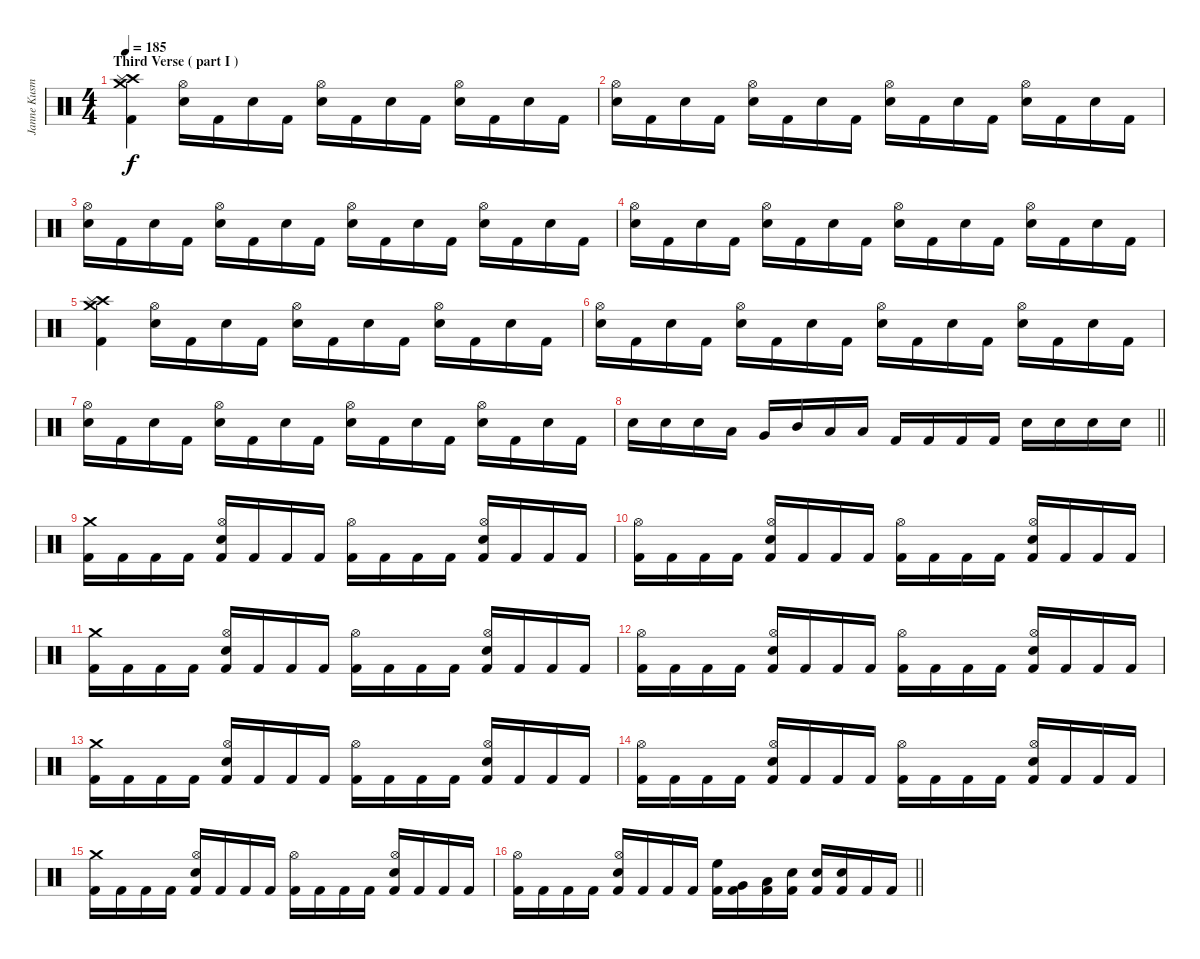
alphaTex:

\track ("Janne Kusmin" "Janne Kusm") {instrument percussion}
\staff {score}
\articulation defaults
\ts (4 4)
\section ("" "Third Verse ( part I )")
\tempo 185
\clef neutral
\ks c
("Crash medium (hit)" "Crash high (hit)" "Splash (hit)" "Kick (hit) 2").4{dy f} ("Hi-Hat (open)" "Electric Snare (hit)").16 "Kick (hit) 2".16 "Electric Snare (hit)".16 "Kick (hit) 2".16 ("Hi-Hat (open)" "Electric Snare (hit)").16 "Kick (hit) 2".16 "Electric Snare (hit)".16 "Kick (hit) 2".16 ("Hi-Hat (open)" "Electric Snare (hit)").16 "Kick (hit) 2".16 "Electric Snare (hit)".16 "Kick (hit) 2".16 |
("Hi-Hat (open)" "Electric Snare (hit)").16 "Kick (hit) 2".16 "Electric Snare (hit)".16 "Kick (hit) 2".16 ("Hi-Hat (open)" "Electric Snare (hit)").16 "Kick (hit) 2".16 "Electric Snare (hit)".16 "Kick (hit) 2".16 ("Hi-Hat (open)" "Electric Snare (hit)").16 "Kick (hit) 2".16 "Electric Snare (hit)".16 "Kick (hit) 2".16 ("Hi-Hat (open)" "Electric Snare (hit)").16 "Kick (hit) 2".16 "Electric Snare (hit)".16 "Kick (hit) 2".16 |
("Hi-Hat (open)" "Electric Snare (hit)").16 "Kick (hit) 2".16 "Electric Snare (hit)".16 "Kick (hit) 2".16 ("Hi-Hat (open)" "Electric Snare (hit)").16 "Kick (hit) 2".16 "Electric Snare (hit)".16 "Kick (hit) 2".16 ("Hi-Hat (open)" "Electric Snare (hit)").16 "Kick (hit) 2".16 "Electric Snare (hit)".16 "Kick (hit) 2".16 ("Hi-Hat (open)" "Electric Snare (hit)").16 "Kick (hit) 2".16 "Electric Snare (hit)".16 "Kick (hit) 2".16 |
("Hi-Hat (open)" "Electric Snare (hit)").16 "Kick (hit) 2".16 "Electric Snare (hit)".16 "Kick (hit) 2".16 ("Hi-Hat (open)" "Electric Snare (hit)").16 "Kick (hit) 2".16 "Electric Snare (hit)".16 "Kick (hit) 2".16 ("Hi-Hat (open)" "Electric Snare (hit)").16 "Kick (hit) 2".16 "Electric Snare (hit)".16 "Kick (hit) 2".16 ("Hi-Hat (open)" "Electric Snare (hit)").16 "Kick (hit) 2".16 "Electric Snare (hit)".16 "Kick (hit) 2".16 |
("Crash medium (hit)" "Crash high (hit)" "Splash (hit)" "Kick (hit) 2").4 ("Hi-Hat (open)" "Electric Snare (hit)").16 "Kick (hit) 2".16 "Electric Snare (hit)".16 "Kick (hit) 2".16 ("Hi-Hat (open)" "Electric Snare (hit)").16 "Kick (hit) 2".16 "Electric Snare (hit)".16 "Kick (hit) 2".16 ("Hi-Hat (open)" "Electric Snare (hit)").16 "Kick (hit) 2".16 "Electric Snare (hit)".16 "Kick (hit) 2".16 |
("Hi-Hat (open)" "Electric Snare (hit)").16 "Kick (hit) 2".16 "Electric Snare (hit)".16 "Kick (hit) 2".16 ("Hi-Hat (open)" "Electric Snare (hit)").16 "Kick (hit) 2".16 "Electric Snare (hit)".16 "Kick (hit) 2".16 ("Hi-Hat (open)" "Electric Snare (hit)").16 "Kick (hit) 2".16 "Electric Snare (hit)".16 "Kick (hit) 2".16 ("Hi-Hat (open)" "Electric Snare (hit)").16 "Kick (hit) 2".16 "Electric Snare (hit)".16 "Kick (hit) 2".16 |
("Hi-Hat (open)" "Electric Snare (hit)").16 "Kick (hit) 2".16 "Electric Snare (hit)".16 "Kick (hit) 2".16 ("Hi-Hat (open)" "Electric Snare (hit)").16 "Kick (hit) 2".16 "Electric Snare (hit)".16 "Kick (hit) 2".16 ("Hi-Hat (open)" "Electric Snare (hit)").16 "Kick (hit) 2".16 "Electric Snare (hit)".16 "Kick (hit) 2".16 ("Hi-Hat (open)" "Electric Snare (hit)").16 "Kick (hit) 2".16 "Electric Snare (hit)".16 "Kick (hit) 2".16 |
\barLineRight lightlight "Electric Snare (hit)".16 "Electric Snare (hit)".16 "Electric Snare (hit)".16 "Low Tom (hit)".16 "Very Low Tom (hit)".16 "Mid Tom (hit)".16 "Low Tom (hit)".16 "Low Floor Tom (hit)".16 "Kick (hit) 2".16 "Kick (hit) 2".16 "Kick (hit) 2".16 "Kick (hit) 2".16 "Electric Snare (hit)".16 "Electric Snare (hit)".16 "Electric Snare (hit)".16 "Electric Snare (hit)".16
|
("Crash medium (hit)" "Kick (hit) 2").16 "Kick (hit) 2".16 "Kick (hit) 2".16 "Kick (hit) 2".16 ("Hi-Hat (open)" "Electric Snare (hit)" "Kick (hit) 2").16 "Kick (hit) 2".16 "Kick (hit) 2".16 "Kick (hit) 2".16 ("Hi-Hat (open)" "Kick (hit) 2").16 "Kick (hit) 2".16 "Kick (hit) 2".16 "Kick (hit) 2".16 ("Hi-Hat (open)" "Electric Snare (hit)" "Kick (hit) 2").16 "Kick (hit) 2".16 "Kick (hit) 2".16 "Kick (hit) 2".16 |
("Hi-Hat (open)" "Kick (hit) 2").16 "Kick (hit) 2".16 "Kick (hit) 2".16 "Kick (hit) 2".16 ("Hi-Hat (open)" "Electric Snare (hit)" "Kick (hit) 2").16 "Kick (hit) 2".16 "Kick (hit) 2".16 "Kick (hit) 2".16 ("Hi-Hat (open)" "Kick (hit) 2").16 "Kick (hit) 2".16 "Kick (hit) 2".16 "Kick (hit) 2".16 ("Hi-Hat (open)" "Electric Snare (hit)" "Kick (hit) 2").16 "Kick (hit) 2".16 "Kick (hit) 2".16 "Kick (hit) 2".16 |
("Crash medium (hit)" "Kick (hit) 2").16 "Kick (hit) 2".16 "Kick (hit) 2".16 "Kick (hit) 2".16 ("Hi-Hat (open)" "Electric Snare (hit)" "Kick (hit) 2").16 "Kick (hit) 2".16 "Kick (hit) 2".16 "Kick (hit) 2".16 ("Hi-Hat (open)" "Kick (hit) 2").16 "Kick (hit) 2".16 "Kick (hit) 2".16 "Kick (hit) 2".16 ("Hi-Hat (open)" "Electric Snare (hit)" "Kick (hit) 2").16 "Kick (hit) 2".16 "Kick (hit) 2".16 "Kick (hit) 2".16 |
("Hi-Hat (open)" "Kick (hit) 2").16 "Kick (hit) 2".16 "Kick (hit) 2".16 "Kick (hit) 2".16 ("Hi-Hat (open)" "Electric Snare (hit)" "Kick (hit) 2").16 "Kick (hit) 2".16 "Kick (hit) 2".16 "Kick (hit) 2".16 ("Hi-Hat (open)" "Kick (hit) 2").16 "Kick (hit) 2".16 "Kick (hit) 2".16 "Kick (hit) 2".16 ("Hi-Hat (open)" "Electric Snare (hit)" "Kick (hit) 2").16 "Kick (hit) 2".16 "Kick (hit) 2".16 "Kick (hit) 2".16 |
("Crash medium (hit)" "Kick (hit) 2").16 "Kick (hit) 2".16 "Kick (hit) 2".16 "Kick (hit) 2".16 ("Hi-Hat (open)" "Electric Snare (hit)" "Kick (hit) 2").16 "Kick (hit) 2".16 "Kick (hit) 2".16 "Kick (hit) 2".16 ("Hi-Hat (open)" "Kick (hit) 2").16 "Kick (hit) 2".16 "Kick (hit) 2".16 "Kick (hit) 2".16 ("Hi-Hat (open)" "Electric Snare (hit)" "Kick (hit) 2").16 "Kick (hit) 2".16 "Kick (hit) 2".16 "Kick (hit) 2".16 |
("Hi-Hat (open)" "Kick (hit) 2").16 "Kick (hit) 2".16 "Kick (hit) 2".16 "Kick (hit) 2".16 ("Hi-Hat (open)" "Electric Snare (hit)" "Kick (hit) 2").16 "Kick (hit) 2".16 "Kick (hit) 2".16 "Kick (hit) 2".16 ("Hi-Hat (open)" "Kick (hit) 2").16 "Kick (hit) 2".16 "Kick (hit) 2".16 "Kick (hit) 2".16 ("Hi-Hat (open)" "Electric Snare (hit)" "Kick (hit) 2").16 "Kick (hit) 2".16 "Kick (hit) 2".16 "Kick (hit) 2".16 |
("Crash medium (hit)" "Kick (hit) 2").16 "Kick (hit) 2".16 "Kick (hit) 2".16 "Kick (hit) 2".16 ("Hi-Hat (open)" "Electric Snare (hit)" "Kick (hit) 2").16 "Kick (hit) 2".16 "Kick (hit) 2".16 "Kick (hit) 2".16 ("Hi-Hat (open)" "Kick (hit) 2").16 "Kick (hit) 2".16 "Kick (hit) 2".16 "Kick (hit) 2".16 ("Hi-Hat (open)" "Electric Snare (hit)" "Kick (hit) 2").16 "Kick (hit) 2".16 "Kick (hit) 2".16 "Kick (hit) 2".16 |
\barLineRight lightlight
("Hi-Hat (open)" "Kick (hit) 2").16 "Kick (hit) 2".16 "Kick (hit) 2".16 "Kick (hit) 2".16 ("Hi-Hat (open)" "Electric Snare (hit)" "Kick (hit) 2").16 "Kick (hit) 2".16 "Kick (hit) 2".16 "Kick (hit) 2".16 ("High Floor Tom (hit)" "Kick (hit) 2").16 ("Very Low Tom (hit)" "Kick (hit) 2").16 ("Low Floor Tom (hit)" "Kick (hit) 2").16 ("Electric Snare (hit)" "Kick (hit) 2").16 ("Electric Snare (hit)" "Kick (hit) 2").16 ("Electric Snare (hit)" "Kick (hit) 2").16 "Kick (hit) 2".16 "Kick (hit) 2".16
